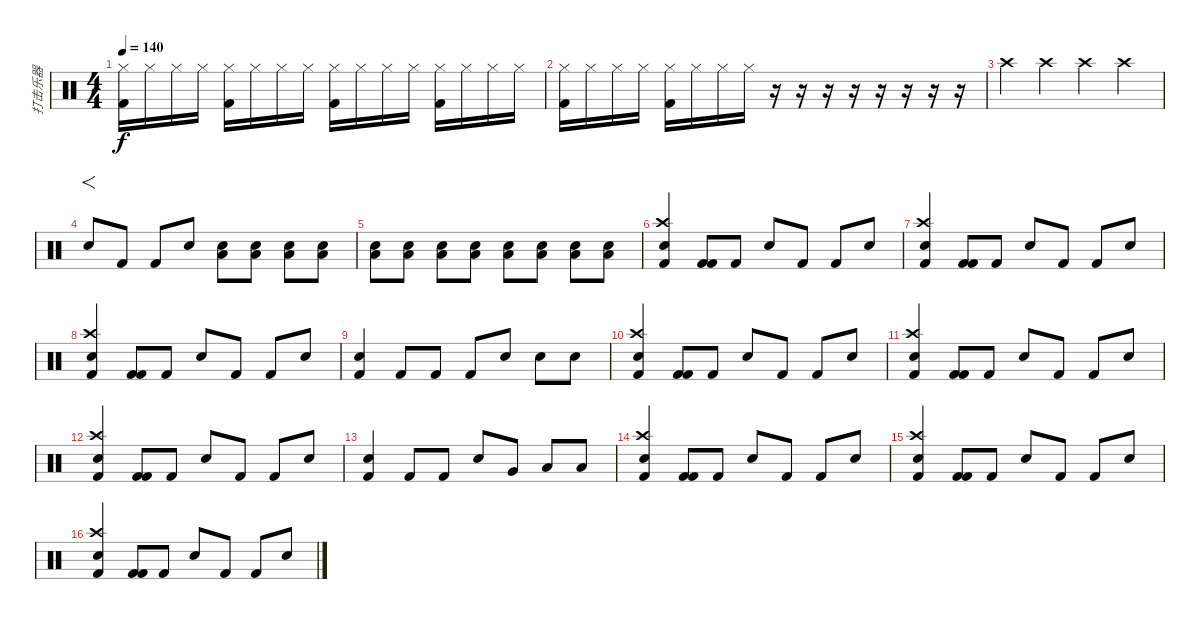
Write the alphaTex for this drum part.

\track ("打击乐器" "打击乐器") {instrument percussion}
\staff {score}
\articulation defaults
\ts (4 4)
\tempo 140
\clef neutral
\ks c
("Hi-Hat (closed)" "Kick (hit) 2").16{dy f} "Hi-Hat (closed)".16 "Hi-Hat (closed)".16 "Hi-Hat (closed)".16 ("Hi-Hat (closed)" "Kick (hit) 2").16 "Hi-Hat (closed)".16 "Hi-Hat (closed)".16 "Hi-Hat (closed)".16 ("Hi-Hat (closed)" "Kick (hit) 2").16 "Hi-Hat (closed)".16 "Hi-Hat (closed)".16 "Hi-Hat (closed)".16 ("Hi-Hat (closed)" "Kick (hit) 2").16 "Hi-Hat (closed)".16 "Hi-Hat (closed)".16 "Hi-Hat (closed)".16 |
("Hi-Hat (closed)" "Kick (hit) 2").16 "Hi-Hat (closed)".16 "Hi-Hat (closed)".16 "Hi-Hat (closed)".16 ("Hi-Hat (closed)" "Kick (hit) 2").16 "Hi-Hat (closed)".16 "Hi-Hat (closed)".16 "Hi-Hat (closed)".16 r.16 r.16 r.16 r.16 r.16 r.16 r.16 r.16 |
"Crash high (hit)".4 "Crash high (hit)".4 "Crash high (hit)".4 "Crash high (hit)".4 |
"Snare (hit) 2".8{f} "Kick (hit) 2".8 "Kick (hit) 2".8 "Snare (hit) 2".8 ("Low Floor Tom (hit)" "Snare (hit) 2").8 ("Low Floor Tom (hit)" "Snare (hit) 2").8 ("Low Floor Tom (hit)" "Snare (hit) 2").8 ("Low Floor Tom (hit)" "Snare (hit) 2").8 |
("Low Floor Tom (hit)" "Snare (hit) 2").8 ("Low Floor Tom (hit)" "Snare (hit) 2").8 ("Low Floor Tom (hit)" "Snare (hit) 2").8 ("Low Floor Tom (hit)" "Snare (hit) 2").8 ("Low Floor Tom (hit)" "Snare (hit) 2").8 ("Low Floor Tom (hit)" "Snare (hit) 2").8 ("Low Floor Tom (hit)" "Snare (hit) 2").8 ("Low Floor Tom (hit)" "Snare (hit) 2").8 |
("Crash high (hit)" "Snare (hit) 2" "Kick (hit) 2").4 ("Kick (hit) 2" "Kick (hit) 2").8 "Kick (hit) 2".8 "Snare (hit) 2".8 "Kick (hit) 2".8 "Kick (hit) 2".8 "Snare (hit) 2".8 |
("Crash high (hit)" "Snare (hit) 2" "Kick (hit) 2").4 ("Kick (hit) 2" "Kick (hit) 2").8 "Kick (hit) 2".8 "Snare (hit) 2".8 "Kick (hit) 2".8 "Kick (hit) 2".8 "Snare (hit) 2".8 |
("Crash high (hit)" "Snare (hit) 2" "Kick (hit) 2").4 ("Kick (hit) 2" "Kick (hit) 2").8 "Kick (hit) 2".8 "Snare (hit) 2".8 "Kick (hit) 2".8 "Kick (hit) 2".8 "Snare (hit) 2".8 |
("Kick (hit) 2" "Snare (hit) 2").4 "Kick (hit) 2".8 "Kick (hit) 2".8 "Kick (hit) 2".8 "Snare (hit) 2".8 "Snare (hit) 2".8 "Snare (hit) 2".8 |
("Crash high (hit)" "Snare (hit) 2" "Kick (hit) 2").4 ("Kick (hit) 2" "Kick (hit) 2").8 "Kick (hit) 2".8 "Snare (hit) 2".8 "Kick (hit) 2".8 "Kick (hit) 2".8 "Snare (hit) 2".8 |
("Crash high (hit)" "Snare (hit) 2" "Kick (hit) 2").4 ("Kick (hit) 2" "Kick (hit) 2").8 "Kick (hit) 2".8 "Snare (hit) 2".8 "Kick (hit) 2".8 "Kick (hit) 2".8 "Snare (hit) 2".8 |
("Crash high (hit)" "Snare (hit) 2" "Kick (hit) 2").4 ("Kick (hit) 2" "Kick (hit) 2").8 "Kick (hit) 2".8 "Snare (hit) 2".8 "Kick (hit) 2".8 "Kick (hit) 2".8 "Snare (hit) 2".8 |
("Kick (hit) 2" "Snare (hit) 2").4 "Kick (hit) 2".8 "Kick (hit) 2".8 "Snare (hit) 2".8 "Very Low Tom (hit)".8 "Low Tom (hit)".8 "Low Floor Tom (hit)".8 |
("Crash high (hit)" "Snare (hit) 2" "Kick (hit) 2").4 ("Kick (hit) 2" "Kick (hit) 2").8 "Kick (hit) 2".8 "Snare (hit) 2".8 "Kick (hit) 2".8 "Kick (hit) 2".8 "Snare (hit) 2".8 |
("Crash high (hit)" "Snare (hit) 2" "Kick (hit) 2").4 ("Kick (hit) 2" "Kick (hit) 2").8 "Kick (hit) 2".8 "Snare (hit) 2".8 "Kick (hit) 2".8 "Kick (hit) 2".8 "Snare (hit) 2".8 |
("Crash high (hit)" "Snare (hit) 2" "Kick (hit) 2").4 ("Kick (hit) 2" "Kick (hit) 2").8 "Kick (hit) 2".8 "Snare (hit) 2".8 "Kick (hit) 2".8 "Kick (hit) 2".8 "Snare (hit) 2".8
